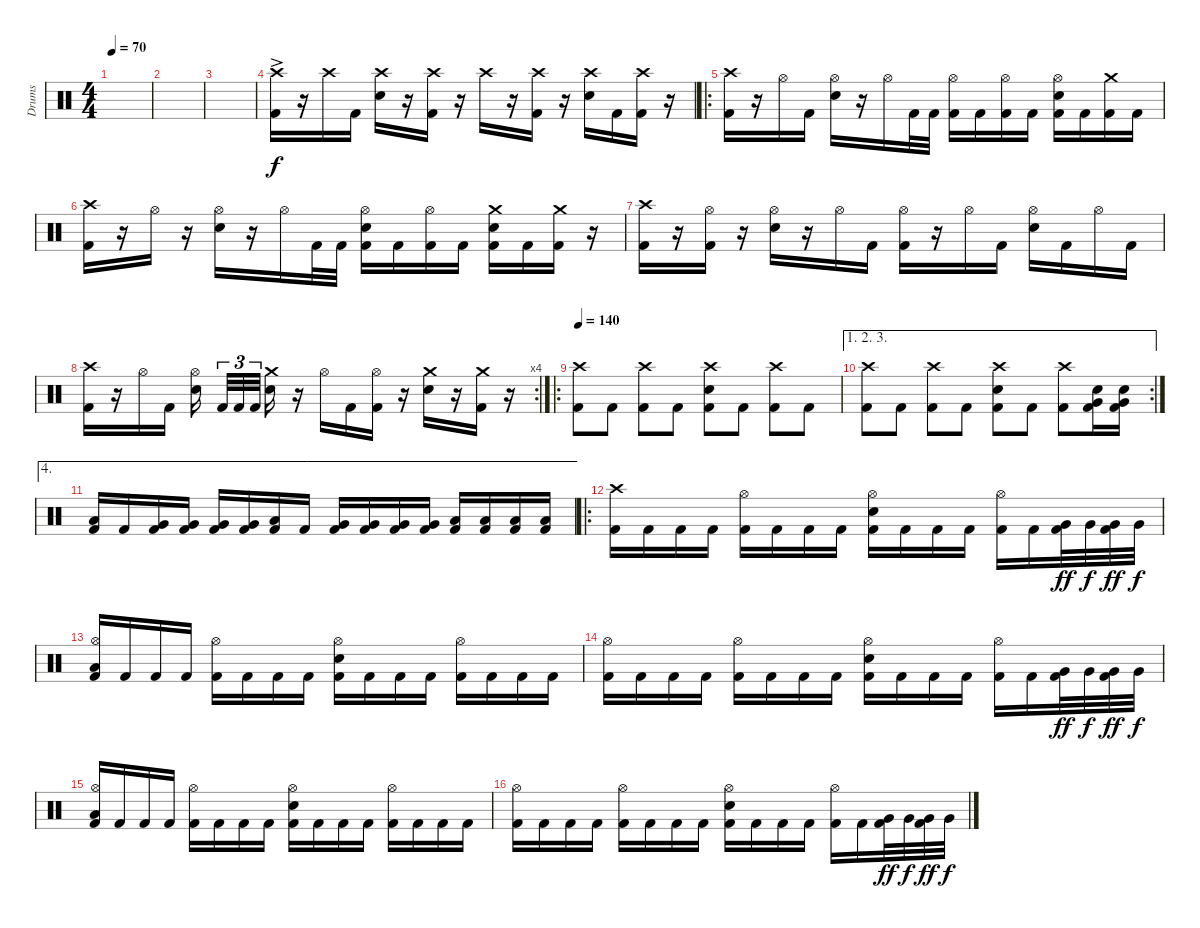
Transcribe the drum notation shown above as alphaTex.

\track ("Drums" "Drums") {instrument percussion}
\staff {score}
\articulation defaults
\ts (4 4)
\tempo 70
\clef neutral
\ks c
|
|
|
("Crash high (hit)"{ac} "Kick (hit) 2").16 r.16 "Crash high (hit)".16{dy f} "Kick (hit) 2".16 ("Crash high (hit)" "Snare (hit) 2").16 r.16 ("Crash high (hit)" "Kick (hit) 2").16 r.16 "Crash high (hit)".16 r.16 ("Crash high (hit)" "Kick (hit) 2").16 r.16 ("Crash high (hit)" "Snare (hit) 2").16 "Kick (hit) 2".16 ("Crash high (hit)" "Kick (hit) 2").16 r.16 |
\ro
("Crash high (hit)" "Kick (hit) 2").16 r.16 "Hi-Hat (open)".16 "Kick (hit) 2".16 ("Hi-Hat (open)" "Snare (hit) 2").16 r.16 "Hi-Hat (open)".16 "Kick (hit) 2".32 "Kick (hit) 2".32 ("Hi-Hat (open)" "Kick (hit) 2").16 "Kick (hit) 2".16 ("Hi-Hat (open)" "Kick (hit) 2").16 "Kick (hit) 2".16 ("Hi-Hat (open)" "Snare (hit) 2" "Kick (hit) 2").16 "Kick (hit) 2".16 ("Crash medium (hit)" "Kick (hit) 2").16 "Kick (hit) 2".16 |
("Crash high (hit)" "Kick (hit) 2").16 r.16 "Hi-Hat (open)".16 r.16 ("Hi-Hat (open)" "Snare (hit) 2").16 r.16 "Hi-Hat (open)".16 "Kick (hit) 2".32 "Kick (hit) 2".32 ("Hi-Hat (open)" "Snare (hit) 2" "Kick (hit) 2").16 "Kick (hit) 2".16 ("Hi-Hat (open)" "Kick (hit) 2").16 "Kick (hit) 2".16 ("Crash medium (hit)" "Snare (hit) 2" "Kick (hit) 2").16 "Kick (hit) 2".16 ("Crash medium (hit)" "Kick (hit) 2").16 r.16 |
("Crash high (hit)" "Kick (hit) 2").16 r.16 ("Hi-Hat (open)" "Kick (hit) 2").16 r.16 ("Hi-Hat (open)" "Snare (hit) 2").16 r.16 "Hi-Hat (open)".16 "Kick (hit) 2".16 ("Hi-Hat (open)" "Kick (hit) 2").16 r.16 "Hi-Hat (open)".16 "Kick (hit) 2".16 ("Hi-Hat (open)" "Snare (hit) 2").16 "Kick (hit) 2".16 "Hi-Hat (open)".16 "Kick (hit) 2".16 |
\rc 4
("Crash high (hit)" "Kick (hit) 2").16 r.16 "Hi-Hat (open)".16 "Kick (hit) 2".16 ("Hi-Hat (open)" "Snare (hit) 2").16 "Kick (hit) 2".32{tu (3 2)} "Kick (hit) 2".32{tu (3 2)} "Kick (hit) 2".32{tu (3 2)} ("Crash medium (hit)" "Snare (hit) 2").16 r.16 "Hi-Hat (open)".16 "Kick (hit) 2".16 ("Hi-Hat (open)" "Kick (hit) 2").16 r.16 ("Crash medium (hit)" "Snare (hit) 2").16 r.16 ("Crash medium (hit)" "Kick (hit) 2").16 r.16 |
\ro
\tempo 140
("Crash high (hit)" "Kick (hit) 2").8 "Kick (hit) 2".8 ("Crash high (hit)" "Kick (hit) 2").8 "Kick (hit) 2".8 ("Crash high (hit)" "Snare (hit) 2" "Kick (hit) 2").8 "Kick (hit) 2".8 ("Crash high (hit)" "Kick (hit) 2").8 "Kick (hit) 2".8 |
\ae (1 2 3)
\rc 2
("Crash high (hit)" "Kick (hit) 2").8 "Kick (hit) 2".8 ("Crash high (hit)" "Kick (hit) 2").8 "Kick (hit) 2".8 ("Crash high (hit)" "Snare (hit) 2" "Kick (hit) 2").8 "Kick (hit) 2".8 ("Crash high (hit)" "Kick (hit) 2").8 ("Snare (hit) 2" "Very Low Tom (hit)" "Kick (hit) 2").16 ("Snare (hit) 2" "Very Low Tom (hit)" "Kick (hit) 2").16 |
\ae 4
("Low Floor Tom (hit)" "Kick (hit) 2").16 "Kick (hit) 2".16 ("Very Low Tom (hit)" "Kick (hit) 2").16 ("Very Low Tom (hit)" "Kick (hit) 2").16 ("Very Low Tom (hit)" "Kick (hit) 2").16 ("Very Low Tom (hit)" "Kick (hit) 2").16 ("Low Floor Tom (hit)" "Kick (hit) 2").16 "Kick (hit) 2".16 ("Very Low Tom (hit)" "Kick (hit) 2").16 ("Very Low Tom (hit)" "Kick (hit) 2").16 ("Very Low Tom (hit)" "Kick (hit) 2").16 ("Very Low Tom (hit)" "Kick (hit) 2").16 ("Low Floor Tom (hit)" "Kick (hit) 2").16 ("Low Floor Tom (hit)" "Kick (hit) 2").16 ("Low Floor Tom (hit)" "Kick (hit) 2").16 ("Low Floor Tom (hit)" "Kick (hit) 2").16 |
\ro
("Crash high (hit)" "Kick (hit) 2").16 "Kick (hit) 2".16 "Kick (hit) 2".16 "Kick (hit) 2".16 ("Hi-Hat (open)" "Kick (hit) 2").16 "Kick (hit) 2".16 "Kick (hit) 2".16 "Kick (hit) 2".16 ("Hi-Hat (open)" "Snare (hit) 2" "Kick (hit) 2").16 "Kick (hit) 2".16 "Kick (hit) 2".16 "Kick (hit) 2".16 ("Hi-Hat (open)" "Kick (hit) 2").16 "Kick (hit) 2".16 ("Very Low Tom (hit)" "Kick (hit) 2").32{dy ff} "Very Low Tom (hit)".32{dy f} ("Very Low Tom (hit)" "Kick (hit) 2").32{dy ff} "Very Low Tom (hit)".32{dy f} |
("Hi-Hat (open)" "Low Floor Tom (hit)" "Kick (hit) 2").16 "Kick (hit) 2".16 "Kick (hit) 2".16 "Kick (hit) 2".16 ("Hi-Hat (open)" "Kick (hit) 2").16 "Kick (hit) 2".16 "Kick (hit) 2".16 "Kick (hit) 2".16 ("Hi-Hat (open)" "Snare (hit) 2" "Kick (hit) 2").16 "Kick (hit) 2".16 "Kick (hit) 2".16 "Kick (hit) 2".16 ("Hi-Hat (open)" "Kick (hit) 2").16 "Kick (hit) 2".16 "Kick (hit) 2".16 "Kick (hit) 2".16 |
("Hi-Hat (open)" "Kick (hit) 2").16 "Kick (hit) 2".16 "Kick (hit) 2".16 "Kick (hit) 2".16 ("Hi-Hat (open)" "Kick (hit) 2").16 "Kick (hit) 2".16 "Kick (hit) 2".16 "Kick (hit) 2".16 ("Hi-Hat (open)" "Snare (hit) 2" "Kick (hit) 2").16 "Kick (hit) 2".16 "Kick (hit) 2".16 "Kick (hit) 2".16 ("Hi-Hat (open)" "Kick (hit) 2").16 "Kick (hit) 2".16 ("Very Low Tom (hit)" "Kick (hit) 2").32{dy ff} "Very Low Tom (hit)".32{dy f} ("Very Low Tom (hit)" "Kick (hit) 2").32{dy ff} "Very Low Tom (hit)".32{dy f} |
("Hi-Hat (open)" "Low Floor Tom (hit)" "Kick (hit) 2").16 "Kick (hit) 2".16 "Kick (hit) 2".16 "Kick (hit) 2".16 ("Hi-Hat (open)" "Kick (hit) 2").16 "Kick (hit) 2".16 "Kick (hit) 2".16 "Kick (hit) 2".16 ("Hi-Hat (open)" "Snare (hit) 2" "Kick (hit) 2").16 "Kick (hit) 2".16 "Kick (hit) 2".16 "Kick (hit) 2".16 ("Hi-Hat (open)" "Kick (hit) 2").16 "Kick (hit) 2".16 "Kick (hit) 2".16 "Kick (hit) 2".16 |
("Hi-Hat (open)" "Kick (hit) 2").16 "Kick (hit) 2".16 "Kick (hit) 2".16 "Kick (hit) 2".16 ("Hi-Hat (open)" "Kick (hit) 2").16 "Kick (hit) 2".16 "Kick (hit) 2".16 "Kick (hit) 2".16 ("Hi-Hat (open)" "Snare (hit) 2" "Kick (hit) 2").16 "Kick (hit) 2".16 "Kick (hit) 2".16 "Kick (hit) 2".16 ("Hi-Hat (open)" "Kick (hit) 2").16 "Kick (hit) 2".16 ("Very Low Tom (hit)" "Kick (hit) 2").32{dy ff} "Very Low Tom (hit)".32{dy f} ("Very Low Tom (hit)" "Kick (hit) 2").32{dy ff} "Very Low Tom (hit)".32{dy f}
